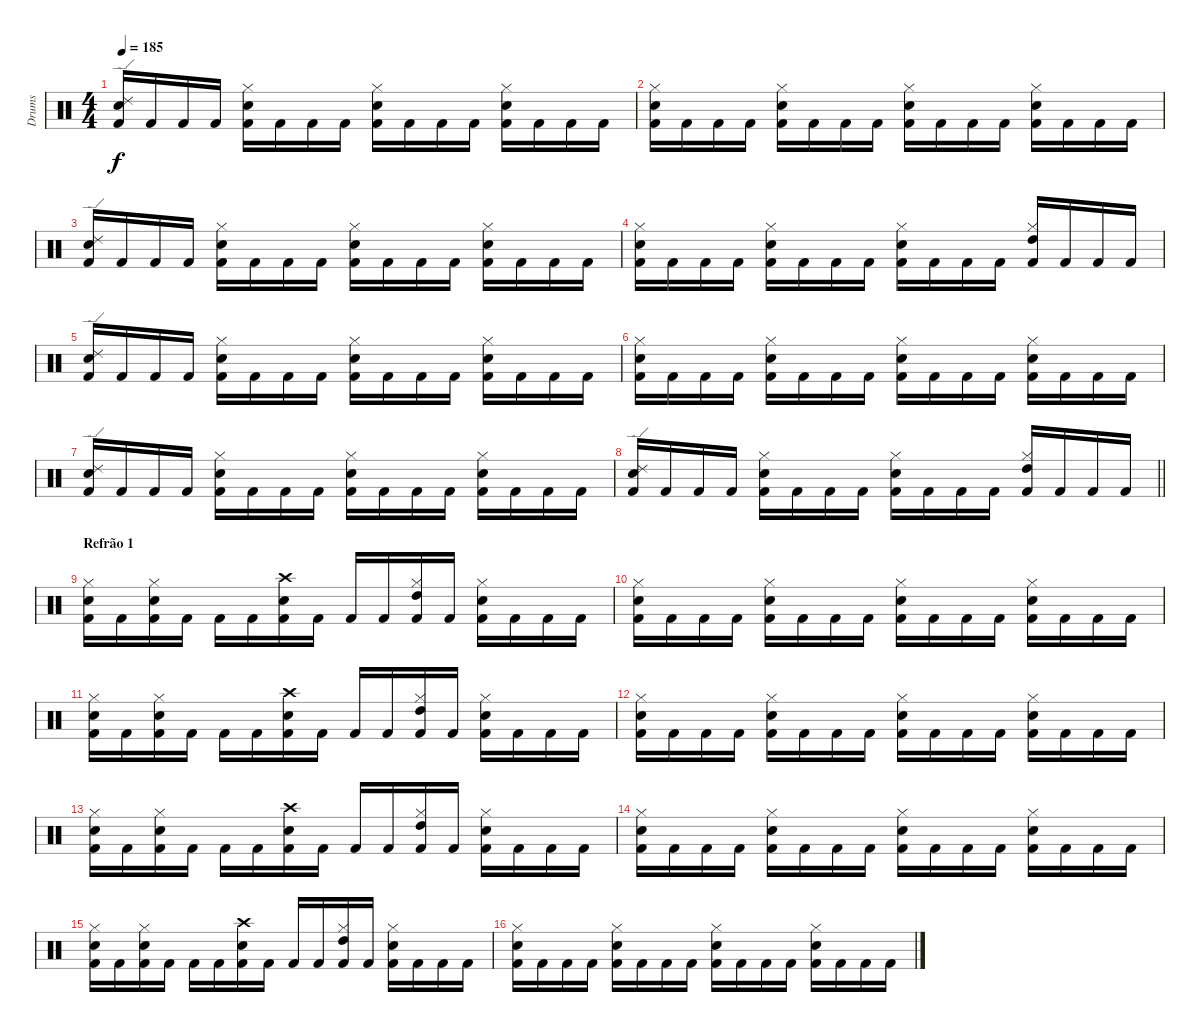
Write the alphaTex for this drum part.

\track ("Drums" "Drums") {instrument percussion}
\staff {score}
\articulation defaults
\ts (4 4)
\tempo 185
\clef neutral
\ks c
("Electric Snare (hit)" "Ride (edge) 2" "Kick (hit) 2").16{dy f} "Kick (hit) 2".16 "Kick (hit) 2".16 "Kick (hit) 2".16 ("Hi-Hat (closed)" "Electric Snare (hit)" "Kick (hit) 2").16 "Kick (hit) 2".16 "Kick (hit) 2".16 "Kick (hit) 2".16 ("Electric Snare (hit)" "Hi-Hat (closed)" "Kick (hit) 2").16 "Kick (hit) 2".16 "Kick (hit) 2".16 "Kick (hit) 2".16 ("Hi-Hat (closed)" "Electric Snare (hit)" "Kick (hit) 2").16 "Kick (hit) 2".16 "Kick (hit) 2".16 "Kick (hit) 2".16 |
("Electric Snare (hit)" "Hi-Hat (closed)" "Kick (hit) 2").16 "Kick (hit) 2".16 "Kick (hit) 2".16 "Kick (hit) 2".16 ("Hi-Hat (closed)" "Electric Snare (hit)" "Kick (hit) 2").16 "Kick (hit) 2".16 "Kick (hit) 2".16 "Kick (hit) 2".16 ("Electric Snare (hit)" "Hi-Hat (closed)" "Kick (hit) 2").16 "Kick (hit) 2".16 "Kick (hit) 2".16 "Kick (hit) 2".16 ("Hi-Hat (closed)" "Electric Snare (hit)" "Kick (hit) 2").16 "Kick (hit) 2".16 "Kick (hit) 2".16 "Kick (hit) 2".16 |
("Electric Snare (hit)" "Ride (edge) 2" "Kick (hit) 2").16 "Kick (hit) 2".16 "Kick (hit) 2".16 "Kick (hit) 2".16 ("Hi-Hat (closed)" "Electric Snare (hit)" "Kick (hit) 2").16 "Kick (hit) 2".16 "Kick (hit) 2".16 "Kick (hit) 2".16 ("Electric Snare (hit)" "Hi-Hat (closed)" "Kick (hit) 2").16 "Kick (hit) 2".16 "Kick (hit) 2".16 "Kick (hit) 2".16 ("Hi-Hat (closed)" "Electric Snare (hit)" "Kick (hit) 2").16 "Kick (hit) 2".16 "Kick (hit) 2".16 "Kick (hit) 2".16 |
("Electric Snare (hit)" "Hi-Hat (closed)" "Kick (hit) 2").16 "Kick (hit) 2".16 "Kick (hit) 2".16 "Kick (hit) 2".16 ("Hi-Hat (closed)" "Electric Snare (hit)" "Kick (hit) 2").16 "Kick (hit) 2".16 "Kick (hit) 2".16 "Kick (hit) 2".16 ("Electric Snare (hit)" "Hi-Hat (closed)" "Kick (hit) 2").16 "Kick (hit) 2".16 "Kick (hit) 2".16 "Kick (hit) 2".16 ("Hi-Hat (closed)" "High Tom (hit)" "Kick (hit) 2").16 "Kick (hit) 2".16 "Kick (hit) 2".16 "Kick (hit) 2".16 |
("Electric Snare (hit)" "Ride (edge) 2" "Kick (hit) 2").16 "Kick (hit) 2".16 "Kick (hit) 2".16 "Kick (hit) 2".16 ("Hi-Hat (closed)" "Electric Snare (hit)" "Kick (hit) 2").16 "Kick (hit) 2".16 "Kick (hit) 2".16 "Kick (hit) 2".16 ("Electric Snare (hit)" "Hi-Hat (closed)" "Kick (hit) 2").16 "Kick (hit) 2".16 "Kick (hit) 2".16 "Kick (hit) 2".16 ("Hi-Hat (closed)" "Electric Snare (hit)" "Kick (hit) 2").16 "Kick (hit) 2".16 "Kick (hit) 2".16 "Kick (hit) 2".16 |
("Electric Snare (hit)" "Hi-Hat (closed)" "Kick (hit) 2").16 "Kick (hit) 2".16 "Kick (hit) 2".16 "Kick (hit) 2".16 ("Hi-Hat (closed)" "Electric Snare (hit)" "Kick (hit) 2").16 "Kick (hit) 2".16 "Kick (hit) 2".16 "Kick (hit) 2".16 ("Electric Snare (hit)" "Hi-Hat (closed)" "Kick (hit) 2").16 "Kick (hit) 2".16 "Kick (hit) 2".16 "Kick (hit) 2".16 ("Hi-Hat (closed)" "Electric Snare (hit)" "Kick (hit) 2").16 "Kick (hit) 2".16 "Kick (hit) 2".16 "Kick (hit) 2".16 |
("Electric Snare (hit)" "Ride (edge) 2" "Kick (hit) 2").16 "Kick (hit) 2".16 "Kick (hit) 2".16 "Kick (hit) 2".16 ("Hi-Hat (closed)" "Electric Snare (hit)" "Kick (hit) 2").16 "Kick (hit) 2".16 "Kick (hit) 2".16 "Kick (hit) 2".16 ("Electric Snare (hit)" "Hi-Hat (closed)" "Kick (hit) 2").16 "Kick (hit) 2".16 "Kick (hit) 2".16 "Kick (hit) 2".16 ("Hi-Hat (closed)" "Electric Snare (hit)" "Kick (hit) 2").16 "Kick (hit) 2".16 "Kick (hit) 2".16 "Kick (hit) 2".16 |
\barLineRight lightlight
("Electric Snare (hit)" "Ride (edge) 2" "Kick (hit) 2").16 "Kick (hit) 2".16 "Kick (hit) 2".16 "Kick (hit) 2".16 ("Hi-Hat (closed)" "Electric Snare (hit)" "Kick (hit) 2").16 "Kick (hit) 2".16 "Kick (hit) 2".16 "Kick (hit) 2".16 ("Electric Snare (hit)" "Hi-Hat (closed)" "Kick (hit) 2").16 "Kick (hit) 2".16 "Kick (hit) 2".16 "Kick (hit) 2".16 ("Hi-Hat (closed)" "High Tom (hit)" "Kick (hit) 2").16 "Kick (hit) 2".16 "Kick (hit) 2".16 "Kick (hit) 2".16 |
\section ("" "Refrão 1")
("Hi-Hat (closed)" "Electric Snare (hit)" "Kick (hit) 2").16 "Kick (hit) 2".16 ("Hi-Hat (closed)" "Electric Snare (hit)" "Kick (hit) 2").16 "Kick (hit) 2".16 "Kick (hit) 2".16 "Kick (hit) 2".16 ("Crash high (hit)" "Electric Snare (hit)" "Kick (hit) 2").16 "Kick (hit) 2".16 "Kick (hit) 2".16 "Kick (hit) 2".16 ("Hi-Hat (closed)" "High Tom (hit)" "Kick (hit) 2").16 "Kick (hit) 2".16 ("Hi-Hat (closed)" "Electric Snare (hit)" "Kick (hit) 2").16 "Kick (hit) 2".16 "Kick (hit) 2".16 "Kick (hit) 2".16 |
("Electric Snare (hit)" "Hi-Hat (closed)" "Kick (hit) 2").16 "Kick (hit) 2".16 "Kick (hit) 2".16 "Kick (hit) 2".16 ("Hi-Hat (closed)" "Electric Snare (hit)" "Kick (hit) 2").16 "Kick (hit) 2".16 "Kick (hit) 2".16 "Kick (hit) 2".16 ("Electric Snare (hit)" "Hi-Hat (closed)" "Kick (hit) 2").16 "Kick (hit) 2".16 "Kick (hit) 2".16 "Kick (hit) 2".16 ("Hi-Hat (closed)" "Electric Snare (hit)" "Kick (hit) 2").16 "Kick (hit) 2".16 "Kick (hit) 2".16 "Kick (hit) 2".16 |
("Hi-Hat (closed)" "Electric Snare (hit)" "Kick (hit) 2").16 "Kick (hit) 2".16 ("Hi-Hat (closed)" "Electric Snare (hit)" "Kick (hit) 2").16 "Kick (hit) 2".16 "Kick (hit) 2".16 "Kick (hit) 2".16 ("Crash high (hit)" "Electric Snare (hit)" "Kick (hit) 2").16 "Kick (hit) 2".16 "Kick (hit) 2".16 "Kick (hit) 2".16 ("Hi-Hat (closed)" "High Tom (hit)" "Kick (hit) 2").16 "Kick (hit) 2".16 ("Hi-Hat (closed)" "Electric Snare (hit)" "Kick (hit) 2").16 "Kick (hit) 2".16 "Kick (hit) 2".16 "Kick (hit) 2".16 |
("Electric Snare (hit)" "Hi-Hat (closed)" "Kick (hit) 2").16 "Kick (hit) 2".16 "Kick (hit) 2".16 "Kick (hit) 2".16 ("Hi-Hat (closed)" "Electric Snare (hit)" "Kick (hit) 2").16 "Kick (hit) 2".16 "Kick (hit) 2".16 "Kick (hit) 2".16 ("Electric Snare (hit)" "Hi-Hat (closed)" "Kick (hit) 2").16 "Kick (hit) 2".16 "Kick (hit) 2".16 "Kick (hit) 2".16 ("Hi-Hat (closed)" "Electric Snare (hit)" "Kick (hit) 2").16 "Kick (hit) 2".16 "Kick (hit) 2".16 "Kick (hit) 2".16 |
("Hi-Hat (closed)" "Electric Snare (hit)" "Kick (hit) 2").16 "Kick (hit) 2".16 ("Hi-Hat (closed)" "Electric Snare (hit)" "Kick (hit) 2").16 "Kick (hit) 2".16 "Kick (hit) 2".16 "Kick (hit) 2".16 ("Crash high (hit)" "Electric Snare (hit)" "Kick (hit) 2").16 "Kick (hit) 2".16 "Kick (hit) 2".16 "Kick (hit) 2".16 ("Hi-Hat (closed)" "High Tom (hit)" "Kick (hit) 2").16 "Kick (hit) 2".16 ("Hi-Hat (closed)" "Electric Snare (hit)" "Kick (hit) 2").16 "Kick (hit) 2".16 "Kick (hit) 2".16 "Kick (hit) 2".16 |
("Electric Snare (hit)" "Hi-Hat (closed)" "Kick (hit) 2").16 "Kick (hit) 2".16 "Kick (hit) 2".16 "Kick (hit) 2".16 ("Hi-Hat (closed)" "Electric Snare (hit)" "Kick (hit) 2").16 "Kick (hit) 2".16 "Kick (hit) 2".16 "Kick (hit) 2".16 ("Electric Snare (hit)" "Hi-Hat (closed)" "Kick (hit) 2").16 "Kick (hit) 2".16 "Kick (hit) 2".16 "Kick (hit) 2".16 ("Hi-Hat (closed)" "Electric Snare (hit)" "Kick (hit) 2").16 "Kick (hit) 2".16 "Kick (hit) 2".16 "Kick (hit) 2".16 |
("Hi-Hat (closed)" "Electric Snare (hit)" "Kick (hit) 2").16 "Kick (hit) 2".16 ("Hi-Hat (closed)" "Electric Snare (hit)" "Kick (hit) 2").16 "Kick (hit) 2".16 "Kick (hit) 2".16 "Kick (hit) 2".16 ("Crash high (hit)" "Electric Snare (hit)" "Kick (hit) 2").16 "Kick (hit) 2".16 "Kick (hit) 2".16 "Kick (hit) 2".16 ("Hi-Hat (closed)" "High Tom (hit)" "Kick (hit) 2").16 "Kick (hit) 2".16 ("Hi-Hat (closed)" "Electric Snare (hit)" "Kick (hit) 2").16 "Kick (hit) 2".16 "Kick (hit) 2".16 "Kick (hit) 2".16 |
("Electric Snare (hit)" "Hi-Hat (closed)" "Kick (hit) 2").16 "Kick (hit) 2".16 "Kick (hit) 2".16 "Kick (hit) 2".16 ("Hi-Hat (closed)" "Electric Snare (hit)" "Kick (hit) 2").16 "Kick (hit) 2".16 "Kick (hit) 2".16 "Kick (hit) 2".16 ("Electric Snare (hit)" "Hi-Hat (closed)" "Kick (hit) 2").16 "Kick (hit) 2".16 "Kick (hit) 2".16 "Kick (hit) 2".16 ("Hi-Hat (closed)" "Electric Snare (hit)" "Kick (hit) 2").16 "Kick (hit) 2".16 "Kick (hit) 2".16 "Kick (hit) 2".16
